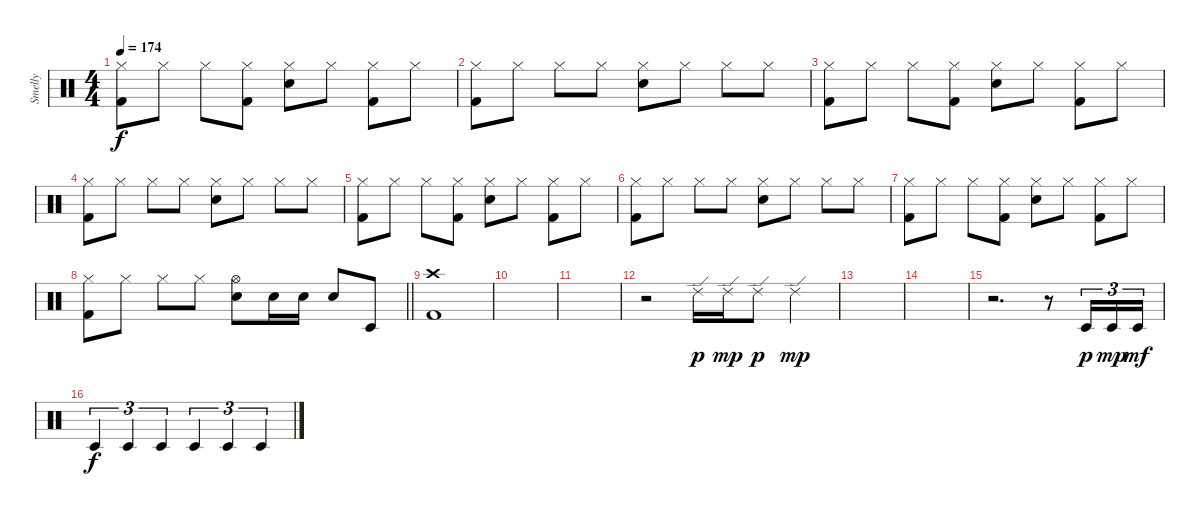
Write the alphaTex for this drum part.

\track ("Smelly" "Smelly") {instrument percussion}
\staff {score}
\articulation defaults
\ts (4 4)
\tempo 174
\clef neutral
\ks c
("Hi-Hat (closed)" "Kick (hit) 2").8{dy f} "Hi-Hat (closed)".8 "Hi-Hat (closed)".8 ("Hi-Hat (closed)" "Kick (hit) 2").8 ("Hi-Hat (closed)" "Electric Snare (hit)").8 "Hi-Hat (closed)".8 ("Hi-Hat (closed)" "Kick (hit) 2").8 "Hi-Hat (closed)".8 |
("Hi-Hat (closed)" "Kick (hit) 2").8 "Hi-Hat (closed)".8 "Hi-Hat (closed)".8 "Hi-Hat (closed)".8 ("Hi-Hat (closed)" "Electric Snare (hit)").8 "Hi-Hat (closed)".8 "Hi-Hat (closed)".8 "Hi-Hat (closed)".8 |
("Hi-Hat (closed)" "Kick (hit) 2").8 "Hi-Hat (closed)".8 "Hi-Hat (closed)".8 ("Hi-Hat (closed)" "Kick (hit) 2").8 ("Hi-Hat (closed)" "Electric Snare (hit)").8 "Hi-Hat (closed)".8 ("Hi-Hat (closed)" "Kick (hit) 2").8 "Hi-Hat (closed)".8 |
("Hi-Hat (closed)" "Kick (hit) 2").8 "Hi-Hat (closed)".8 "Hi-Hat (closed)".8 "Hi-Hat (closed)".8 ("Hi-Hat (closed)" "Electric Snare (hit)").8 "Hi-Hat (closed)".8 "Hi-Hat (closed)".8 "Hi-Hat (closed)".8 |
("Hi-Hat (closed)" "Kick (hit) 2").8 "Hi-Hat (closed)".8 "Hi-Hat (closed)".8 ("Hi-Hat (closed)" "Kick (hit) 2").8 ("Hi-Hat (closed)" "Electric Snare (hit)").8 "Hi-Hat (closed)".8 ("Hi-Hat (closed)" "Kick (hit) 2").8 "Hi-Hat (closed)".8 |
("Hi-Hat (closed)" "Kick (hit) 2").8 "Hi-Hat (closed)".8 "Hi-Hat (closed)".8 "Hi-Hat (closed)".8 ("Hi-Hat (closed)" "Electric Snare (hit)").8 "Hi-Hat (closed)".8 "Hi-Hat (closed)".8 "Hi-Hat (closed)".8 |
("Hi-Hat (closed)" "Kick (hit) 2").8 "Hi-Hat (closed)".8 "Hi-Hat (closed)".8 ("Hi-Hat (closed)" "Kick (hit) 2").8 ("Hi-Hat (closed)" "Electric Snare (hit)").8 "Hi-Hat (closed)".8 ("Hi-Hat (closed)" "Kick (hit) 2").8 "Hi-Hat (closed)".8 |
\barLineRight lightlight
("Hi-Hat (closed)" "Kick (hit) 2").8 "Hi-Hat (closed)".8 "Hi-Hat (closed)".8 "Hi-Hat (closed)".8 ("Hi-Hat (open)" "Electric Snare (hit)").8 "Electric Snare (hit)".16 "Electric Snare (hit)".16 "Electric Snare (hit)".8 "Timbale low (hit)".8 |
\section ("" "")
("Crash high (hit)" "Kick (hit) 2").1 |
|
|
r.2 "Ride (edge) 2".16{dy p} "Ride (edge) 2".16{dy mp} "Ride (edge) 2".8{dy p} "Ride (edge) 2".4{dy mp} |
|
|
r.2{d} r.8 "Timbale low (hit)".16{tu (3 2) dy p} "Timbale low (hit)".16{tu (3 2) dy mp} "Timbale low (hit)".16{tu (3 2) dy mf} |
"Timbale low (hit)".4{tu (3 2) dy f} "Timbale low (hit)".4{tu (3 2)} "Timbale low (hit)".4{tu (3 2)} "Timbale low (hit)".4{tu (3 2)} "Timbale low (hit)".4{tu (3 2)} "Timbale low (hit)".4{tu (3 2)}
